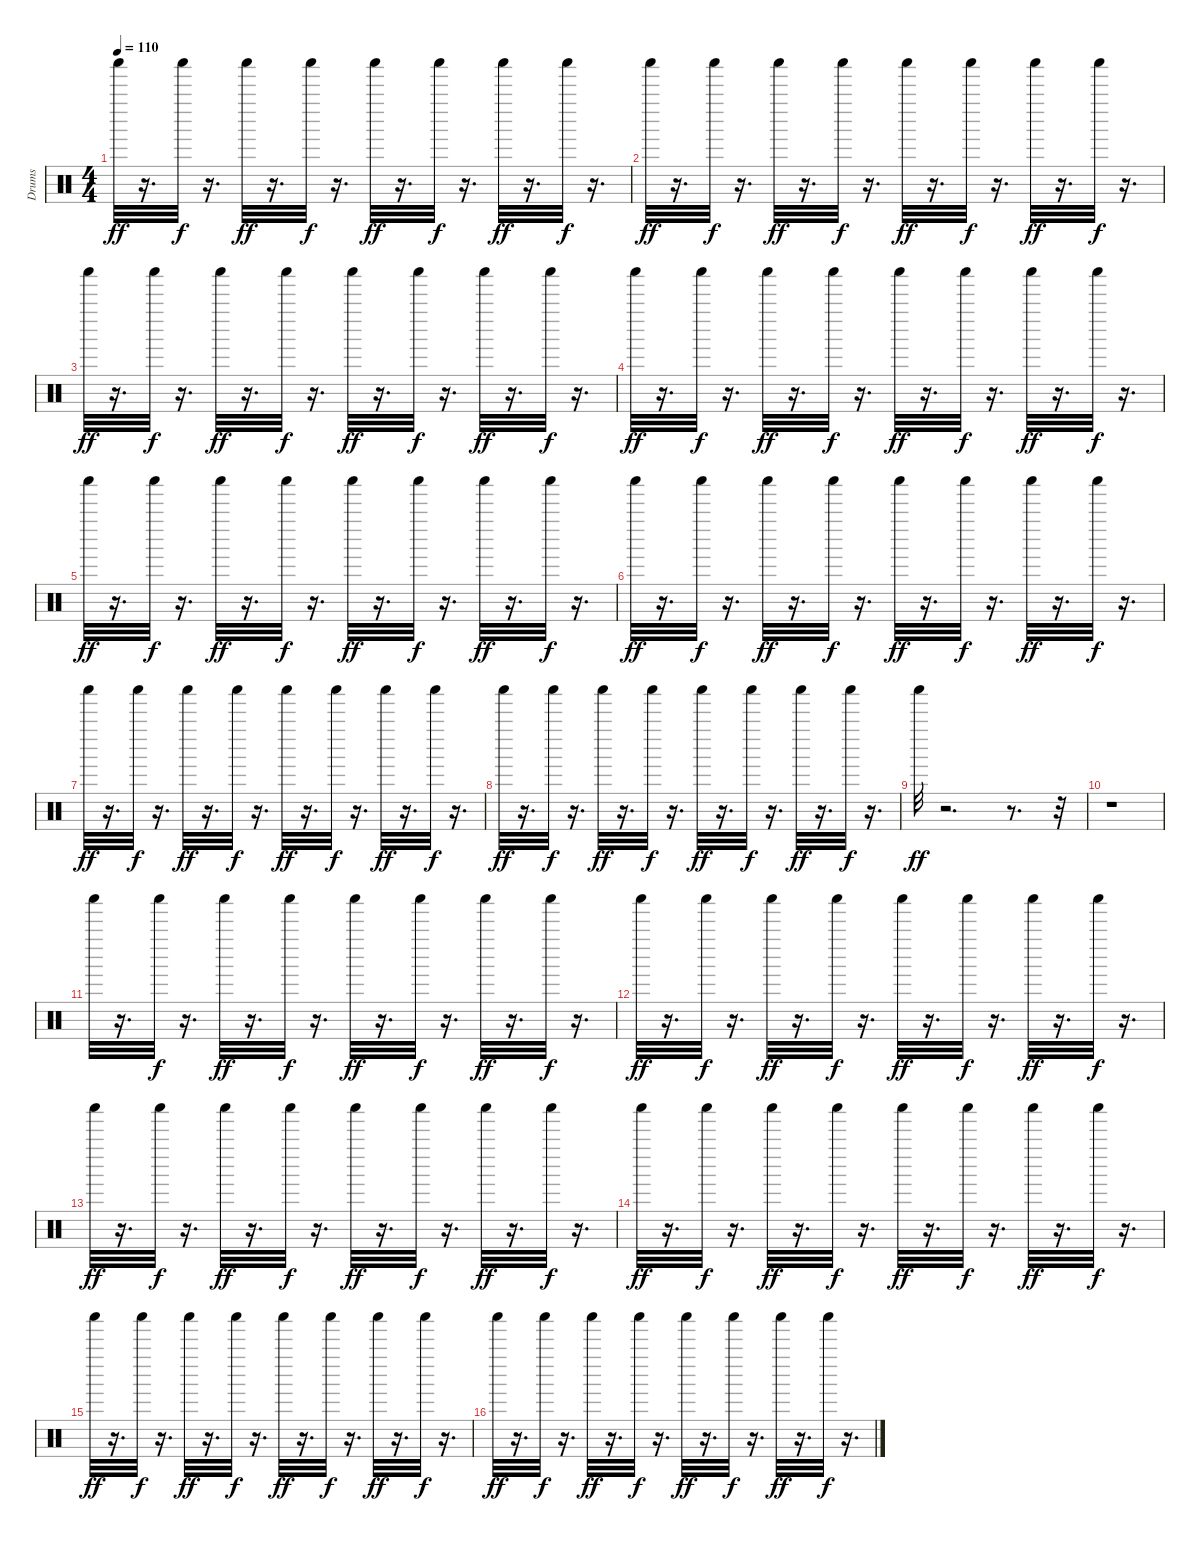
\track ("Drums" "Drums") {instrument percussion}
\staff {score}
\articulation defaults
\ts (4 4)
\tempo 110
\clef neutral
\ks c "Shaker (hit)".32{dy ff}
r.16{d} "Shaker (hit)".32{dy f} r.16{d} "Shaker (hit)".32{dy ff} r.16{d} "Shaker (hit)".32{dy f} r.16{d} "Shaker (hit)".32{dy ff} r.16{d} "Shaker (hit)".32{dy f} r.16{d} "Shaker (hit)".32{dy ff} r.16{d} "Shaker (hit)".32{dy f} r.16{d} |
"Shaker (hit)".32{dy ff} r.16{d} "Shaker (hit)".32{dy f} r.16{d} "Shaker (hit)".32{dy ff} r.16{d} "Shaker (hit)".32{dy f} r.16{d} "Shaker (hit)".32{dy ff} r.16{d} "Shaker (hit)".32{dy f} r.16{d} "Shaker (hit)".32{dy ff} r.16{d} "Shaker (hit)".32{dy f} r.16{d} |
"Shaker (hit)".32{dy ff} r.16{d} "Shaker (hit)".32{dy f} r.16{d} "Shaker (hit)".32{dy ff} r.16{d} "Shaker (hit)".32{dy f} r.16{d} "Shaker (hit)".32{dy ff} r.16{d} "Shaker (hit)".32{dy f} r.16{d} "Shaker (hit)".32{dy ff} r.16{d} "Shaker (hit)".32{dy f} r.16{d} |
"Shaker (hit)".32{dy ff} r.16{d} "Shaker (hit)".32{dy f} r.16{d} "Shaker (hit)".32{dy ff} r.16{d} "Shaker (hit)".32{dy f} r.16{d} "Shaker (hit)".32{dy ff} r.16{d} "Shaker (hit)".32{dy f} r.16{d} "Shaker (hit)".32{dy ff} r.16{d} "Shaker (hit)".32{dy f} r.16{d} |
"Shaker (hit)".32{dy ff} r.16{d} "Shaker (hit)".32{dy f} r.16{d} "Shaker (hit)".32{dy ff} r.16{d} "Shaker (hit)".32{dy f} r.16{d} "Shaker (hit)".32{dy ff} r.16{d} "Shaker (hit)".32{dy f} r.16{d} "Shaker (hit)".32{dy ff} r.16{d} "Shaker (hit)".32{dy f} r.16{d} |
"Shaker (hit)".32{dy ff} r.16{d} "Shaker (hit)".32{dy f} r.16{d} "Shaker (hit)".32{dy ff} r.16{d} "Shaker (hit)".32{dy f} r.16{d} "Shaker (hit)".32{dy ff} r.16{d} "Shaker (hit)".32{dy f} r.16{d} "Shaker (hit)".32{dy ff} r.16{d} "Shaker (hit)".32{dy f} r.16{d} |
"Shaker (hit)".32{dy ff} r.16{d} "Shaker (hit)".32{dy f} r.16{d} "Shaker (hit)".32{dy ff} r.16{d} "Shaker (hit)".32{dy f} r.16{d} "Shaker (hit)".32{dy ff} r.16{d} "Shaker (hit)".32{dy f} r.16{d} "Shaker (hit)".32{dy ff} r.16{d} "Shaker (hit)".32{dy f} r.16{d} |
"Shaker (hit)".32{dy ff} r.16{d} "Shaker (hit)".32{dy f} r.16{d} "Shaker (hit)".32{dy ff} r.16{d} "Shaker (hit)".32{dy f} r.16{d} "Shaker (hit)".32{dy ff} r.16{d} "Shaker (hit)".32{dy f} r.16{d} "Shaker (hit)".32{dy ff} r.16{d} "Shaker (hit)".32{dy f} r.16{d} |
"Shaker (hit)".32{dy ff} r.2{d} r.8{d} r.32 |
r.1 |
"Shaker (hit)".32 r.16{d} "Shaker (hit)".32{dy f} r.16{d} "Shaker (hit)".32{dy ff} r.16{d} "Shaker (hit)".32{dy f} r.16{d} "Shaker (hit)".32{dy ff} r.16{d} "Shaker (hit)".32{dy f} r.16{d} "Shaker (hit)".32{dy ff} r.16{d} "Shaker (hit)".32{dy f} r.16{d} |
"Shaker (hit)".32{dy ff} r.16{d} "Shaker (hit)".32{dy f} r.16{d} "Shaker (hit)".32{dy ff} r.16{d} "Shaker (hit)".32{dy f} r.16{d} "Shaker (hit)".32{dy ff} r.16{d} "Shaker (hit)".32{dy f} r.16{d} "Shaker (hit)".32{dy ff} r.16{d} "Shaker (hit)".32{dy f} r.16{d} |
"Shaker (hit)".32{dy ff} r.16{d} "Shaker (hit)".32{dy f} r.16{d} "Shaker (hit)".32{dy ff} r.16{d} "Shaker (hit)".32{dy f} r.16{d} "Shaker (hit)".32{dy ff} r.16{d} "Shaker (hit)".32{dy f} r.16{d} "Shaker (hit)".32{dy ff} r.16{d} "Shaker (hit)".32{dy f} r.16{d} |
"Shaker (hit)".32{dy ff} r.16{d} "Shaker (hit)".32{dy f} r.16{d} "Shaker (hit)".32{dy ff} r.16{d} "Shaker (hit)".32{dy f} r.16{d} "Shaker (hit)".32{dy ff} r.16{d} "Shaker (hit)".32{dy f} r.16{d} "Shaker (hit)".32{dy ff} r.16{d} "Shaker (hit)".32{dy f} r.16{d} |
"Shaker (hit)".32{dy ff} r.16{d} "Shaker (hit)".32{dy f} r.16{d} "Shaker (hit)".32{dy ff} r.16{d} "Shaker (hit)".32{dy f} r.16{d} "Shaker (hit)".32{dy ff} r.16{d} "Shaker (hit)".32{dy f} r.16{d} "Shaker (hit)".32{dy ff} r.16{d} "Shaker (hit)".32{dy f} r.16{d} |
"Shaker (hit)".32{dy ff} r.16{d} "Shaker (hit)".32{dy f} r.16{d} "Shaker (hit)".32{dy ff} r.16{d} "Shaker (hit)".32{dy f} r.16{d} "Shaker (hit)".32{dy ff} r.16{d} "Shaker (hit)".32{dy f} r.16{d} "Shaker (hit)".32{dy ff} r.16{d} "Shaker (hit)".32{dy f} r.16{d}
